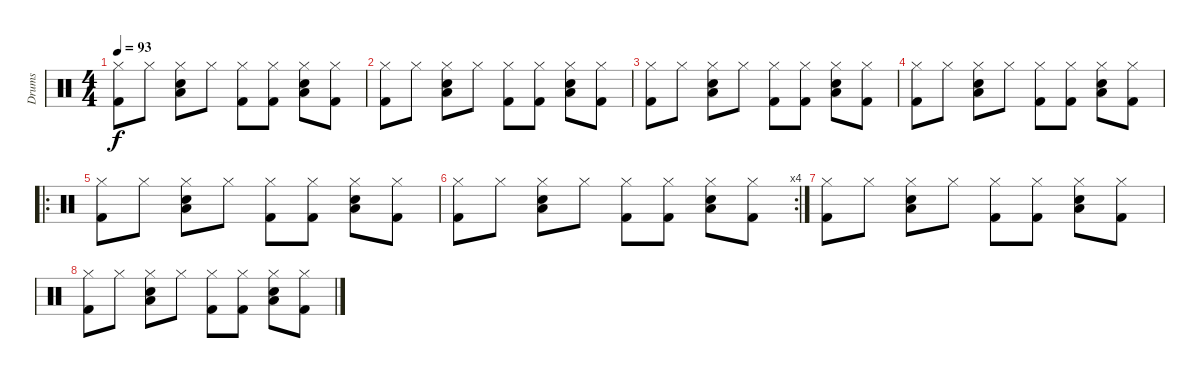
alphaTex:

\track ("Drums" "Drums") {instrument percussion}
\staff {score}
\articulation defaults
\ts (4 4)
\tempo 93
\clef neutral
\ks c
("Hi-Hat (closed)" "Kick (hit) 2").8{dy f} "Hi-Hat (closed)".8 ("Hi-Hat (closed)" "Snare (hit) 2" "Low Tom (hit)").8 "Hi-Hat (closed)".8 ("Hi-Hat (closed)" "Kick (hit) 2").8 ("Hi-Hat (closed)" "Kick (hit) 2").8 ("Hi-Hat (closed)" "Snare (hit) 2" "Low Tom (hit)").8 ("Hi-Hat (closed)" "Kick (hit) 2").8 |
("Hi-Hat (closed)" "Kick (hit) 2").8 "Hi-Hat (closed)".8 ("Hi-Hat (closed)" "Snare (hit) 2" "Low Tom (hit)").8 "Hi-Hat (closed)".8 ("Hi-Hat (closed)" "Kick (hit) 2").8 ("Hi-Hat (closed)" "Kick (hit) 2").8 ("Hi-Hat (closed)" "Snare (hit) 2" "Low Tom (hit)").8 ("Hi-Hat (closed)" "Kick (hit) 2").8 |
("Hi-Hat (closed)" "Kick (hit) 2").8 "Hi-Hat (closed)".8 ("Hi-Hat (closed)" "Snare (hit) 2" "Low Tom (hit)").8 "Hi-Hat (closed)".8 ("Hi-Hat (closed)" "Kick (hit) 2").8 ("Hi-Hat (closed)" "Kick (hit) 2").8 ("Hi-Hat (closed)" "Snare (hit) 2" "Low Tom (hit)").8 ("Hi-Hat (closed)" "Kick (hit) 2").8 |
("Hi-Hat (closed)" "Kick (hit) 2").8 "Hi-Hat (closed)".8 ("Hi-Hat (closed)" "Snare (hit) 2" "Low Tom (hit)").8 "Hi-Hat (closed)".8 ("Hi-Hat (closed)" "Kick (hit) 2").8 ("Hi-Hat (closed)" "Kick (hit) 2").8 ("Hi-Hat (closed)" "Snare (hit) 2" "Low Tom (hit)").8 ("Hi-Hat (closed)" "Kick (hit) 2").8 |
\ro
("Hi-Hat (closed)" "Kick (hit) 2").8 "Hi-Hat (closed)".8 ("Hi-Hat (closed)" "Snare (hit) 2" "Low Tom (hit)").8 "Hi-Hat (closed)".8 ("Hi-Hat (closed)" "Kick (hit) 2").8 ("Hi-Hat (closed)" "Kick (hit) 2").8 ("Hi-Hat (closed)" "Snare (hit) 2" "Low Tom (hit)").8 ("Hi-Hat (closed)" "Kick (hit) 2").8 |
\rc 4
("Hi-Hat (closed)" "Kick (hit) 2").8 "Hi-Hat (closed)".8 ("Hi-Hat (closed)" "Snare (hit) 2" "Low Tom (hit)").8 "Hi-Hat (closed)".8 ("Hi-Hat (closed)" "Kick (hit) 2").8 ("Hi-Hat (closed)" "Kick (hit) 2").8 ("Hi-Hat (closed)" "Snare (hit) 2" "Low Tom (hit)").8 ("Hi-Hat (closed)" "Kick (hit) 2").8 |
("Hi-Hat (closed)" "Kick (hit) 2").8 "Hi-Hat (closed)".8 ("Hi-Hat (closed)" "Snare (hit) 2" "Low Tom (hit)").8 "Hi-Hat (closed)".8 ("Hi-Hat (closed)" "Kick (hit) 2").8 ("Hi-Hat (closed)" "Kick (hit) 2").8 ("Hi-Hat (closed)" "Snare (hit) 2" "Low Tom (hit)").8 ("Hi-Hat (closed)" "Kick (hit) 2").8 |
("Hi-Hat (closed)" "Kick (hit) 2").8 "Hi-Hat (closed)".8 ("Hi-Hat (closed)" "Snare (hit) 2" "Low Tom (hit)").8 "Hi-Hat (closed)".8 ("Hi-Hat (closed)" "Kick (hit) 2").8 ("Hi-Hat (closed)" "Kick (hit) 2").8 ("Hi-Hat (closed)" "Snare (hit) 2" "Low Tom (hit)").8 ("Hi-Hat (closed)" "Kick (hit) 2").8
